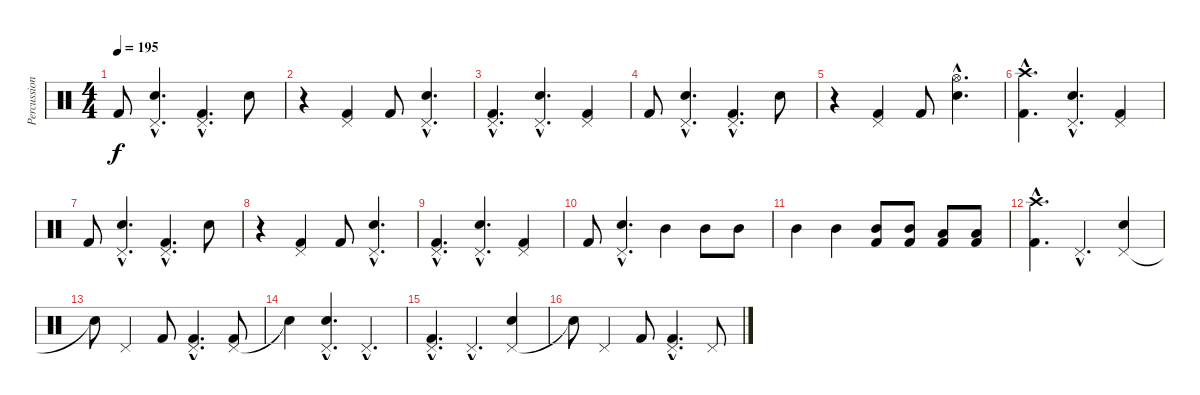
\track ("Percussion" "Percussion") {instrument percussion}
\staff {score}
\articulation defaults
\ts (4 4)
\tempo 195
\clef neutral
\ks c "Kick (hit) 2".8{dy f}
("Pedal Hi-Hat (hit)"{hac} "Snare (hit) 2"{hac}).4{d} ("Pedal Hi-Hat (hit)"{hac} "Kick (hit) 2"{hac}).4{d} "Snare (hit) 2".8 |
r.4 ("Pedal Hi-Hat (hit)" "Kick (hit) 2").4 "Kick (hit) 2".8 ("Pedal Hi-Hat (hit)"{hac} "Snare (hit) 2"{hac}).4{d} |
("Pedal Hi-Hat (hit)"{hac} "Kick (hit) 2"{hac}).4{d} ("Pedal Hi-Hat (hit)"{hac} "Snare (hit) 2"{hac}).4{d} ("Pedal Hi-Hat (hit)" "Kick (hit) 2").4 |
"Kick (hit) 2".8 ("Pedal Hi-Hat (hit)"{hac} "Snare (hit) 2"{hac}).4{d} ("Pedal Hi-Hat (hit)"{hac} "Kick (hit) 2"{hac}).4{d} "Snare (hit) 2".8 |
r.4 ("Pedal Hi-Hat (hit)" "Kick (hit) 2").4 "Kick (hit) 2".8 ("Hi-Hat (open)"{hac} "Snare (hit) 2"{hac}).4{d} |
("Crash high (hit)"{hac} "Kick (hit) 2"{hac}).4{d} ("Pedal Hi-Hat (hit)"{hac} "Snare (hit) 2"{hac}).4{d} ("Pedal Hi-Hat (hit)" "Kick (hit) 2").4 |
"Kick (hit) 2".8 ("Pedal Hi-Hat (hit)"{hac} "Snare (hit) 2"{hac}).4{d} ("Pedal Hi-Hat (hit)"{hac} "Kick (hit) 2"{hac}).4{d} "Snare (hit) 2".8 |
r.4 ("Pedal Hi-Hat (hit)" "Kick (hit) 2").4 "Kick (hit) 2".8 ("Pedal Hi-Hat (hit)"{hac} "Snare (hit) 2"{hac}).4{d} |
("Pedal Hi-Hat (hit)"{hac} "Kick (hit) 2"{hac}).4{d} ("Pedal Hi-Hat (hit)"{hac} "Snare (hit) 2"{hac}).4{d} ("Pedal Hi-Hat (hit)" "Kick (hit) 2").4 |
"Kick (hit) 2".8 ("Pedal Hi-Hat (hit)"{hac} "Snare (hit) 2"{hac}).4{d} "Mid Tom (hit)".4 "Mid Tom (hit)".8 "Mid Tom (hit)".8 |
"Mid Tom (hit)".4 "Mid Tom (hit)".4 ("Mid Tom (hit)" "Kick (hit) 2").8 ("Mid Tom (hit)" "Kick (hit) 2").8 ("Low Tom (hit)" "Kick (hit) 2").8 ("Low Tom (hit)" "Kick (hit) 2").8 |
("Crash high (hit)"{hac} "Kick (hit) 2"{hac}).4{d} "Pedal Hi-Hat (hit)"{hac}.4{d} ("Pedal Hi-Hat (hit)" "Snare (hit) 2").4 |
"Snare (hit)"{t}.8 "Pedal Hi-Hat (hit)".4 "Kick (hit) 2".8 ("Pedal Hi-Hat (hit)"{hac} "Kick (hit) 2"{hac}).4{d} ("Pedal Hi-Hat (hit)" "Kick (hit) 2").8 |
"Snare (hit)"{t}.4 ("Pedal Hi-Hat (hit)"{hac} "Snare (hit) 2"{hac}).4{d} "Pedal Hi-Hat (hit)"{hac}.4{d} |
("Pedal Hi-Hat (hit)"{hac} "Kick (hit) 2"{hac}).4{d} "Pedal Hi-Hat (hit)"{hac}.4{d} ("Pedal Hi-Hat (hit)" "Snare (hit) 2").4 |
"Snare (hit)"{t}.8 "Pedal Hi-Hat (hit)".4 "Kick (hit) 2".8 ("Pedal Hi-Hat (hit)"{hac} "Kick (hit) 2"{hac}).4{d} "Pedal Hi-Hat (hit)".8
